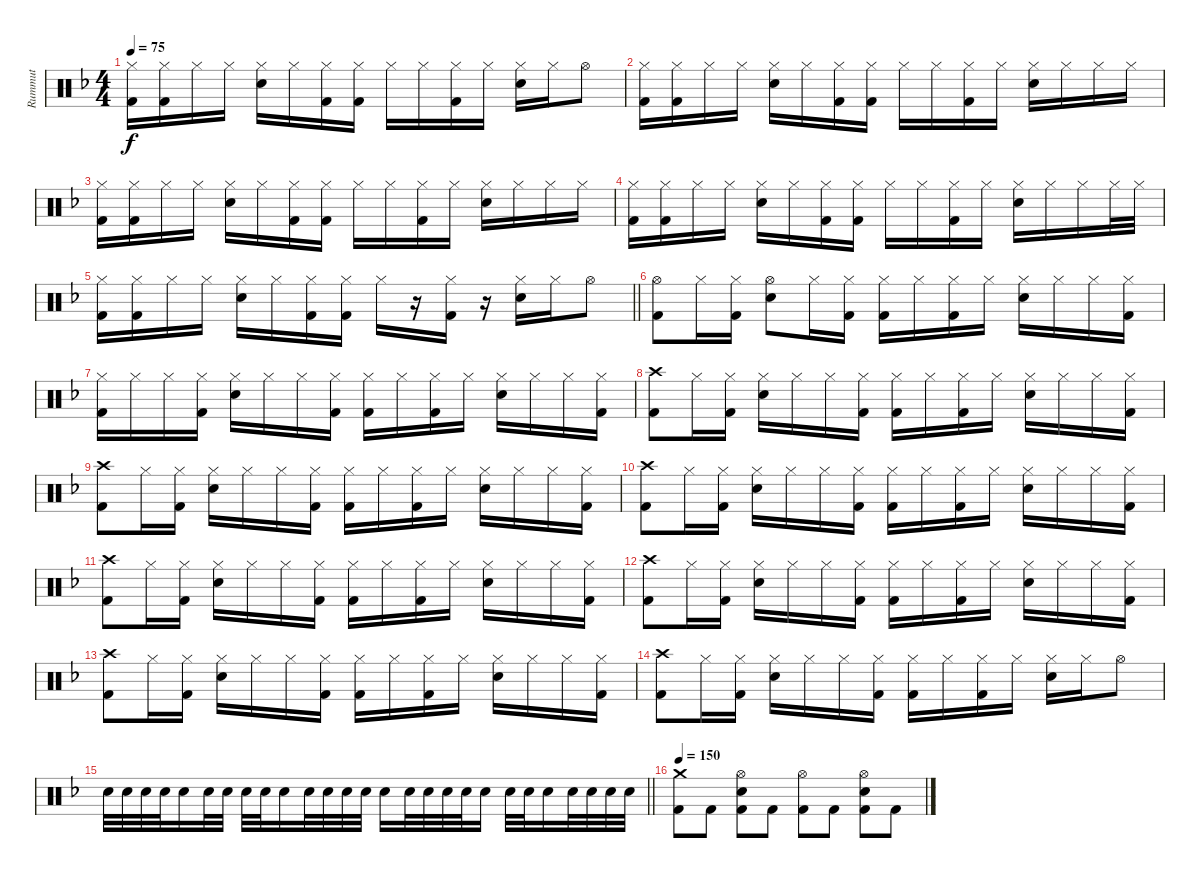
\track ("Rummut" "Rummut") {instrument percussion}
\staff {score}
\articulation defaults
\ts (4 4)
\tempo 75
\clef neutral
\ks dminor
("Hi-Hat (closed)" "Kick (hit) 2").16{dy f} ("Hi-Hat (closed)" "Kick (hit) 2").16 "Hi-Hat (closed)".16 "Hi-Hat (closed)".16 ("Hi-Hat (closed)" "Snare (hit) 2").16 "Hi-Hat (closed)".16 ("Hi-Hat (closed)" "Kick (hit) 2").16 ("Hi-Hat (closed)" "Kick (hit) 2").16 "Hi-Hat (closed)".16 "Hi-Hat (closed)".16 ("Hi-Hat (closed)" "Kick (hit) 2").16 "Hi-Hat (closed)".16 ("Hi-Hat (closed)" "Snare (hit) 2").16 "Hi-Hat (closed)".16 "Hi-Hat (open)".8 |
("Hi-Hat (closed)" "Kick (hit) 2").16 ("Hi-Hat (closed)" "Kick (hit) 2").16 "Hi-Hat (closed)".16 "Hi-Hat (closed)".16 ("Hi-Hat (closed)" "Snare (hit) 2").16 "Hi-Hat (closed)".16 ("Hi-Hat (closed)" "Kick (hit) 2").16 ("Hi-Hat (closed)" "Kick (hit) 2").16 "Hi-Hat (closed)".16 "Hi-Hat (closed)".16 ("Hi-Hat (closed)" "Kick (hit) 2").16 "Hi-Hat (closed)".16 ("Hi-Hat (closed)" "Snare (hit) 2").16 "Hi-Hat (closed)".16 "Hi-Hat (closed)".16 "Hi-Hat (closed)".16 |
("Hi-Hat (closed)" "Kick (hit) 2").16 ("Hi-Hat (closed)" "Kick (hit) 2").16 "Hi-Hat (closed)".16 "Hi-Hat (closed)".16 ("Hi-Hat (closed)" "Snare (hit) 2").16 "Hi-Hat (closed)".16 ("Hi-Hat (closed)" "Kick (hit) 2").16 ("Hi-Hat (closed)" "Kick (hit) 2").16 "Hi-Hat (closed)".16 "Hi-Hat (closed)".16 ("Hi-Hat (closed)" "Kick (hit) 2").16 "Hi-Hat (closed)".16 ("Hi-Hat (closed)" "Snare (hit) 2").16 "Hi-Hat (closed)".16 "Hi-Hat (closed)".16 "Hi-Hat (closed)".16 |
("Hi-Hat (closed)" "Kick (hit) 2").16 ("Hi-Hat (closed)" "Kick (hit) 2").16 "Hi-Hat (closed)".16 "Hi-Hat (closed)".16 ("Hi-Hat (closed)" "Snare (hit) 2").16 "Hi-Hat (closed)".16 ("Hi-Hat (closed)" "Kick (hit) 2").16 ("Hi-Hat (closed)" "Kick (hit) 2").16 "Hi-Hat (closed)".16 "Hi-Hat (closed)".16 ("Hi-Hat (closed)" "Kick (hit) 2").16 "Hi-Hat (closed)".16 ("Hi-Hat (closed)" "Snare (hit) 2").16 "Hi-Hat (closed)".16 "Hi-Hat (closed)".16 "Hi-Hat (closed)".32 "Hi-Hat (closed)".32 |
\barLineRight lightlight
("Hi-Hat (closed)" "Kick (hit) 2").16 ("Hi-Hat (closed)" "Kick (hit) 2").16 "Hi-Hat (closed)".16 "Hi-Hat (closed)".16 ("Hi-Hat (closed)" "Snare (hit) 2").16 "Hi-Hat (closed)".16 ("Hi-Hat (closed)" "Kick (hit) 2").16 ("Hi-Hat (closed)" "Kick (hit) 2").16 "Hi-Hat (closed)".16 r.16 ("Hi-Hat (closed)" "Kick (hit) 2").16 r.16 ("Hi-Hat (closed)" "Snare (hit) 2").16 "Hi-Hat (closed)".16 "Hi-Hat (open)".8 |
("Hi-Hat (open)" "Kick (hit) 2").8 "Hi-Hat (closed)".16 ("Hi-Hat (closed)" "Kick (hit) 2").16 ("Hi-Hat (open)" "Snare (hit) 2").8 "Hi-Hat (closed)".16 ("Hi-Hat (closed)" "Kick (hit) 2").16 ("Hi-Hat (closed)" "Kick (hit) 2").16 "Hi-Hat (closed)".16 ("Hi-Hat (closed)" "Kick (hit) 2").16 "Hi-Hat (closed)".16 ("Hi-Hat (closed)" "Snare (hit) 2").16 "Hi-Hat (closed)".16 "Hi-Hat (closed)".16 ("Hi-Hat (closed)" "Kick (hit) 2").16 |
("Hi-Hat (closed)" "Kick (hit) 2").16 "Hi-Hat (closed)".16 "Hi-Hat (closed)".16 ("Hi-Hat (closed)" "Kick (hit) 2").16 ("Hi-Hat (closed)" "Snare (hit) 2").16 "Hi-Hat (closed)".16 "Hi-Hat (closed)".16 ("Hi-Hat (closed)" "Kick (hit) 2").16 ("Hi-Hat (closed)" "Kick (hit) 2").16 "Hi-Hat (closed)".16 ("Hi-Hat (closed)" "Kick (hit) 2").16 "Hi-Hat (closed)".16 ("Hi-Hat (closed)" "Snare (hit) 2").16 "Hi-Hat (closed)".16 "Hi-Hat (closed)".16 ("Hi-Hat (closed)" "Kick (hit) 2").16 |
("Crash high (hit)" "Kick (hit) 2").8 "Hi-Hat (closed)".16 ("Hi-Hat (closed)" "Kick (hit) 2").16 ("Hi-Hat (closed)" "Snare (hit) 2").16 "Hi-Hat (closed)".16 "Hi-Hat (closed)".16 ("Hi-Hat (closed)" "Kick (hit) 2").16 ("Hi-Hat (closed)" "Kick (hit) 2").16 "Hi-Hat (closed)".16 ("Hi-Hat (closed)" "Kick (hit) 2").16 "Hi-Hat (closed)".16 ("Hi-Hat (closed)" "Snare (hit) 2").16 "Hi-Hat (closed)".16 "Hi-Hat (closed)".16 ("Hi-Hat (closed)" "Kick (hit) 2").16 |
("Crash high (hit)" "Kick (hit) 2").8 "Hi-Hat (closed)".16 ("Hi-Hat (closed)" "Kick (hit) 2").16 ("Hi-Hat (closed)" "Snare (hit) 2").16 "Hi-Hat (closed)".16 "Hi-Hat (closed)".16 ("Hi-Hat (closed)" "Kick (hit) 2").16 ("Hi-Hat (closed)" "Kick (hit) 2").16 "Hi-Hat (closed)".16 ("Hi-Hat (closed)" "Kick (hit) 2").16 "Hi-Hat (closed)".16 ("Hi-Hat (closed)" "Snare (hit) 2").16 "Hi-Hat (closed)".16 "Hi-Hat (closed)".16 ("Hi-Hat (closed)" "Kick (hit) 2").16 |
("Crash high (hit)" "Kick (hit) 2").8 "Hi-Hat (closed)".16 ("Hi-Hat (closed)" "Kick (hit) 2").16 ("Hi-Hat (closed)" "Snare (hit) 2").16 "Hi-Hat (closed)".16 "Hi-Hat (closed)".16 ("Hi-Hat (closed)" "Kick (hit) 2").16 ("Hi-Hat (closed)" "Kick (hit) 2").16 "Hi-Hat (closed)".16 ("Hi-Hat (closed)" "Kick (hit) 2").16 "Hi-Hat (closed)".16 ("Hi-Hat (closed)" "Snare (hit) 2").16 "Hi-Hat (closed)".16 "Hi-Hat (closed)".16 ("Hi-Hat (closed)" "Kick (hit) 2").16 |
("Crash high (hit)" "Kick (hit) 2").8 "Hi-Hat (closed)".16 ("Hi-Hat (closed)" "Kick (hit) 2").16 ("Hi-Hat (closed)" "Snare (hit) 2").16 "Hi-Hat (closed)".16 "Hi-Hat (closed)".16 ("Hi-Hat (closed)" "Kick (hit) 2").16 ("Hi-Hat (closed)" "Kick (hit) 2").16 "Hi-Hat (closed)".16 ("Hi-Hat (closed)" "Kick (hit) 2").16 "Hi-Hat (closed)".16 ("Hi-Hat (closed)" "Snare (hit) 2").16 "Hi-Hat (closed)".16 "Hi-Hat (closed)".16 ("Hi-Hat (closed)" "Kick (hit) 2").16 |
("Crash high (hit)" "Kick (hit) 2").8 "Hi-Hat (closed)".16 ("Hi-Hat (closed)" "Kick (hit) 2").16 ("Hi-Hat (closed)" "Snare (hit) 2").16 "Hi-Hat (closed)".16 "Hi-Hat (closed)".16 ("Hi-Hat (closed)" "Kick (hit) 2").16 ("Hi-Hat (closed)" "Kick (hit) 2").16 "Hi-Hat (closed)".16 ("Hi-Hat (closed)" "Kick (hit) 2").16 "Hi-Hat (closed)".16 ("Hi-Hat (closed)" "Snare (hit) 2").16 "Hi-Hat (closed)".16 "Hi-Hat (closed)".16 ("Hi-Hat (closed)" "Kick (hit) 2").16 |
("Crash high (hit)" "Kick (hit) 2").8 "Hi-Hat (closed)".16 ("Hi-Hat (closed)" "Kick (hit) 2").16 ("Hi-Hat (closed)" "Snare (hit) 2").16 "Hi-Hat (closed)".16 "Hi-Hat (closed)".16 ("Hi-Hat (closed)" "Kick (hit) 2").16 ("Hi-Hat (closed)" "Kick (hit) 2").16 "Hi-Hat (closed)".16 ("Hi-Hat (closed)" "Kick (hit) 2").16 "Hi-Hat (closed)".16 ("Hi-Hat (closed)" "Snare (hit) 2").16 "Hi-Hat (closed)".16 "Hi-Hat (closed)".16 ("Hi-Hat (closed)" "Kick (hit) 2").16 |
("Crash high (hit)" "Kick (hit) 2").8 "Hi-Hat (closed)".16 ("Hi-Hat (closed)" "Kick (hit) 2").16 ("Hi-Hat (closed)" "Snare (hit) 2").16 "Hi-Hat (closed)".16 "Hi-Hat (closed)".16 ("Hi-Hat (closed)" "Kick (hit) 2").16 ("Hi-Hat (closed)" "Kick (hit) 2").16 "Hi-Hat (closed)".16 ("Hi-Hat (closed)" "Kick (hit) 2").16 "Hi-Hat (closed)".16 ("Hi-Hat (closed)" "Snare (hit) 2").16 "Hi-Hat (closed)".16 "Hi-Hat (open)".8 |
\barLineRight lightlight "Snare (hit) 2".32 "Snare (hit) 2".32 "Snare (hit) 2".32 "Snare (hit) 2".32 "Snare (hit) 2".16 "Snare (hit) 2".32 "Snare (hit) 2".32 "Snare (hit) 2".32 "Snare (hit) 2".32 "Snare (hit) 2".16 "Snare (hit) 2".32 "Snare (hit) 2".32 "Snare (hit) 2".32 "Snare (hit) 2".32 "Snare (hit) 2".16 "Snare (hit) 2".32 "Snare (hit) 2".32 "Snare (hit) 2".32 "Snare (hit) 2".32 "Snare (hit) 2".16 "Snare (hit) 2".32 "Snare (hit) 2".32 "Snare (hit) 2".16 "Snare (hit) 2".32 "Snare (hit) 2".32 "Snare (hit) 2".32 "Snare (hit) 2".32
|
\tempo 150
("Crash medium (hit)" "Kick (hit) 2").8 "Kick (hit) 2".8 ("Hi-Hat (open)" "Snare (hit) 2" "Kick (hit) 2").8 "Kick (hit) 2".8 ("Hi-Hat (open)" "Kick (hit) 2").8 "Kick (hit) 2".8 ("Hi-Hat (open)" "Snare (hit) 2" "Kick (hit) 2").8 "Kick (hit) 2".8
